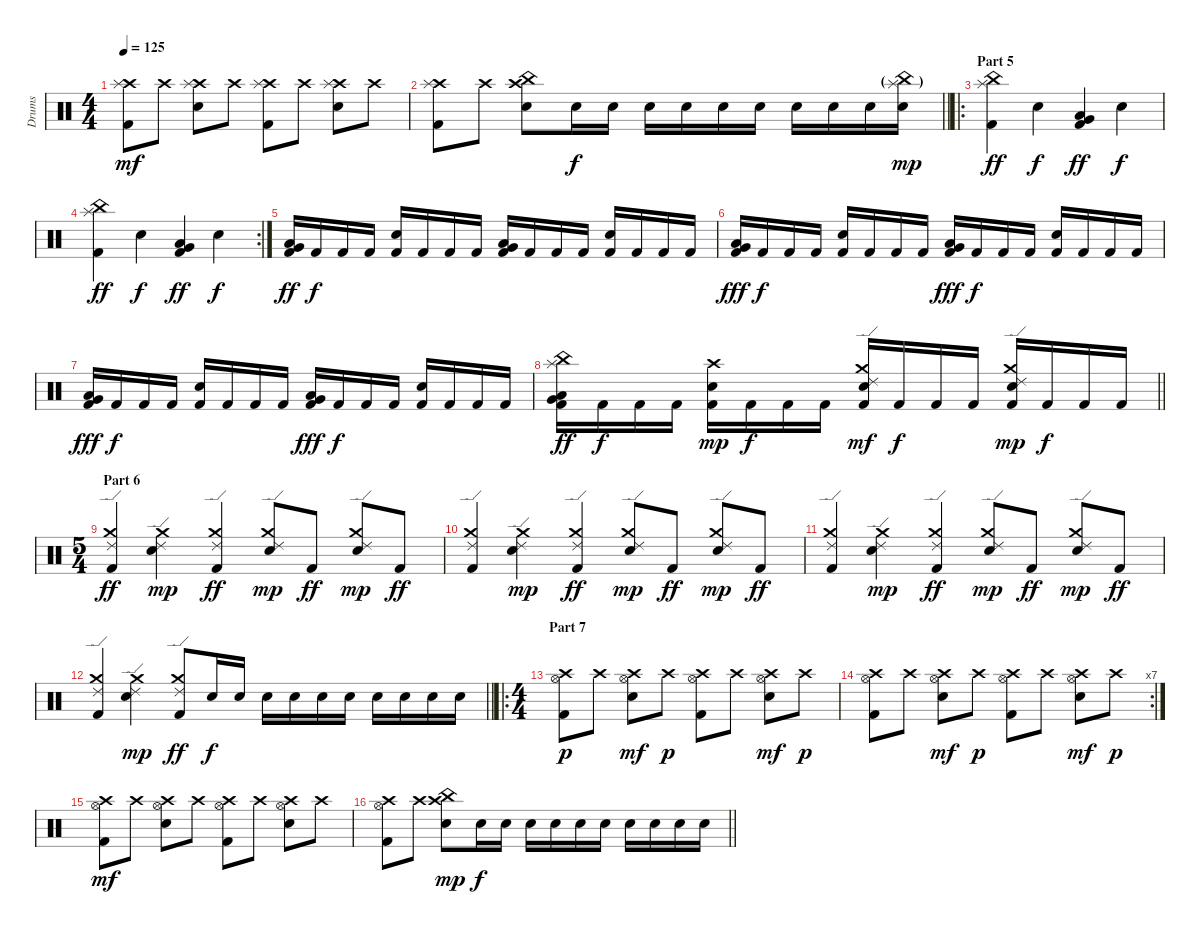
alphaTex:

\track ("Drums" "Drums") {instrument percussion}
\staff {score}
\articulation defaults
\ts (4 4)
\tempo 125
\clef neutral
\ks c
("Crash high (hit)" "Splash (hit)" "Kick (hit) 2").8{dy mf} "Crash high (hit)".8 ("Crash high (hit)" "Splash (hit)" "Electric Snare (hit)").8 "Crash high (hit)".8 ("Crash high (hit)" "Splash (hit)" "Kick (hit) 2").8 "Crash high (hit)".8 ("Crash high (hit)" "Splash (hit)" "Electric Snare (hit)").8 "Crash high (hit)".8 |
\barLineRight lightlight
("Crash high (hit)" "Splash (hit)" "Kick (hit) 2").8 "Crash high (hit)".8 ("Crash high (hit)" "China (hit)" "Electric Snare (hit)").8 "Electric Snare (hit)".16{dy f} "Electric Snare (hit)".16 "Electric Snare (hit)".16 "Electric Snare (hit)".16 "Electric Snare (hit)".16 "Electric Snare (hit)".16 "Electric Snare (hit)".16 "Electric Snare (hit)".16 "Electric Snare (hit)".16 ("Splash (hit)"{g} "China (hit)"{g} "Electric Snare (hit)").16{dy mp} |
\ro
\section ("" "Part 5")
("Splash (hit)" "China (hit)" "Kick (hit) 2").4{dy ff} "Electric Snare (hit)".4{dy f} ("Very Low Tom (hit)" "Low Floor Tom (hit)" "Kick (hit) 2").4{dy ff} "Electric Snare (hit)".4{dy f} |
\rc 2
("Splash (hit)" "China (hit)" "Kick (hit) 2").4{dy ff} "Electric Snare (hit)".4{dy f} ("Very Low Tom (hit)" "Low Floor Tom (hit)" "Kick (hit) 2").4{dy ff} "Electric Snare (hit)".4{dy f} |
("Very Low Tom (hit)" "Low Floor Tom (hit)" "Kick (hit) 2").16{dy ff} "Kick (hit) 2".16{dy f} "Kick (hit) 2".16 "Kick (hit) 2".16 ("Electric Snare (hit)" "Kick (hit) 2").16 "Kick (hit) 2".16 "Kick (hit) 2".16 "Kick (hit) 2".16 ("Very Low Tom (hit)" "Low Floor Tom (hit)" "Kick (hit) 2").16 "Kick (hit) 2".16 "Kick (hit) 2".16 "Kick (hit) 2".16 ("Electric Snare (hit)" "Kick (hit) 2").16 "Kick (hit) 2".16 "Kick (hit) 2".16 "Kick (hit) 2".16 |
("Very Low Tom (hit)" "Low Floor Tom (hit)" "Kick (hit) 2").16{dy fff} "Kick (hit) 2".16{dy f} "Kick (hit) 2".16 "Kick (hit) 2".16 ("Electric Snare (hit)" "Kick (hit) 2").16 "Kick (hit) 2".16 "Kick (hit) 2".16 "Kick (hit) 2".16 ("Very Low Tom (hit)" "Low Floor Tom (hit)" "Kick (hit) 2").16{dy fff} "Kick (hit) 2".16{dy f} "Kick (hit) 2".16 "Kick (hit) 2".16 ("Electric Snare (hit)" "Kick (hit) 2").16 "Kick (hit) 2".16 "Kick (hit) 2".16 "Kick (hit) 2".16 |
("Very Low Tom (hit)" "Low Floor Tom (hit)" "Kick (hit) 2").16{dy fff} "Kick (hit) 2".16{dy f} "Kick (hit) 2".16 "Kick (hit) 2".16 ("Electric Snare (hit)" "Kick (hit) 2").16 "Kick (hit) 2".16 "Kick (hit) 2".16 "Kick (hit) 2".16 ("Very Low Tom (hit)" "Low Floor Tom (hit)" "Kick (hit) 2").16{dy fff} "Kick (hit) 2".16{dy f} "Kick (hit) 2".16 "Kick (hit) 2".16 ("Electric Snare (hit)" "Kick (hit) 2").16 "Kick (hit) 2".16 "Kick (hit) 2".16 "Kick (hit) 2".16 |
\barLineRight lightlight
("Splash (hit)" "China (hit)" "Very Low Tom (hit)" "Low Floor Tom (hit)" "Kick (hit) 2").16{dy ff} "Kick (hit) 2".16{dy f} "Kick (hit) 2".16 "Kick (hit) 2".16 ("Crash high (hit)" "Electric Snare (hit)" "Kick (hit) 2").16{dy mp} "Kick (hit) 2".16{dy f} "Kick (hit) 2".16 "Kick (hit) 2".16 ("Crash medium (hit)" "Ride (edge) 2" "Electric Snare (hit)" "Kick (hit) 2").16{dy mf} "Kick (hit) 2".16{dy f} "Kick (hit) 2".16 "Kick (hit) 2".16 ("Crash medium (hit)" "Ride (edge) 2" "Electric Snare (hit)" "Kick (hit) 2").16{dy mp} "Kick (hit) 2".16{dy f} "Kick (hit) 2".16 "Kick (hit) 2".16 |
\ts (5 4)
\section ("" "Part 6")
("Crash medium (hit)" "Ride (edge) 2" "Kick (hit) 2").4{dy ff} ("Crash medium (hit)" "Ride (edge) 2" "Electric Snare (hit)").4{dy mp} ("Crash medium (hit)" "Ride (edge) 2" "Kick (hit) 2").4{dy ff} ("Crash medium (hit)" "Ride (edge) 2" "Electric Snare (hit)").8{dy mp} "Kick (hit) 2".8{dy ff} ("Crash medium (hit)" "Ride (edge) 2" "Electric Snare (hit)").8{dy mp} "Kick (hit) 2".8{dy ff} |
("Crash medium (hit)" "Ride (edge) 2" "Kick (hit) 2").4 ("Crash medium (hit)" "Ride (edge) 2" "Electric Snare (hit)").4{dy mp} ("Crash medium (hit)" "Ride (edge) 2" "Kick (hit) 2").4{dy ff} ("Crash medium (hit)" "Ride (edge) 2" "Electric Snare (hit)").8{dy mp} "Kick (hit) 2".8{dy ff} ("Crash medium (hit)" "Ride (edge) 2" "Electric Snare (hit)").8{dy mp} "Kick (hit) 2".8{dy ff} |
("Crash medium (hit)" "Ride (edge) 2" "Kick (hit) 2").4 ("Crash medium (hit)" "Ride (edge) 2" "Electric Snare (hit)").4{dy mp} ("Crash medium (hit)" "Ride (edge) 2" "Kick (hit) 2").4{dy ff} ("Crash medium (hit)" "Ride (edge) 2" "Electric Snare (hit)").8{dy mp} "Kick (hit) 2".8{dy ff} ("Crash medium (hit)" "Ride (edge) 2" "Electric Snare (hit)").8{dy mp} "Kick (hit) 2".8{dy ff} |
\barLineRight lightlight
("Crash medium (hit)" "Ride (edge) 2" "Kick (hit) 2").4 ("Crash medium (hit)" "Ride (edge) 2" "Electric Snare (hit)").4{dy mp} ("Crash medium (hit)" "Ride (edge) 2" "Kick (hit) 2").8{dy ff} "Electric Snare (hit)".16{dy f} "Electric Snare (hit)".16 "Electric Snare (hit)".16 "Electric Snare (hit)".16 "Electric Snare (hit)".16 "Electric Snare (hit)".16 "Electric Snare (hit)".16 "Electric Snare (hit)".16 "Electric Snare (hit)".16 "Electric Snare (hit)".16 |
\ro
\ts (4 4)
\section ("" "Part 7")
("Crash high (hit)" "Hi-Hat (open)" "Kick (hit) 2").8{dy p} "Crash high (hit)".8 ("Crash high (hit)" "Hi-Hat (open)" "Electric Snare (hit)").8{dy mf} "Crash high (hit)".8{dy p} ("Crash high (hit)" "Hi-Hat (open)" "Kick (hit) 2").8 "Crash high (hit)".8 ("Crash high (hit)" "Hi-Hat (open)" "Electric Snare (hit)").8{dy mf} "Crash high (hit)".8{dy p} |
\rc 7
("Crash high (hit)" "Hi-Hat (open)" "Kick (hit) 2").8 "Crash high (hit)".8 ("Crash high (hit)" "Hi-Hat (open)" "Electric Snare (hit)").8{dy mf} "Crash high (hit)".8{dy p} ("Crash high (hit)" "Hi-Hat (open)" "Kick (hit) 2").8 "Crash high (hit)".8 ("Crash high (hit)" "Hi-Hat (open)" "Electric Snare (hit)").8{dy mf} "Crash high (hit)".8{dy p} |
("Crash high (hit)" "Hi-Hat (open)" "Kick (hit) 2").8{dy mf} "Crash high (hit)".8 ("Crash high (hit)" "Hi-Hat (open)" "Electric Snare (hit)").8 "Crash high (hit)".8 ("Crash high (hit)" "Hi-Hat (open)" "Kick (hit) 2").8 "Crash high (hit)".8 ("Crash high (hit)" "Hi-Hat (open)" "Electric Snare (hit)").8 "Crash high (hit)".8 |
\barLineRight lightlight
("Crash high (hit)" "Hi-Hat (open)" "Kick (hit) 2").8 "Crash high (hit)".8 ("Crash high (hit)" "China (hit)" "Electric Snare (hit)").8{dy mp} "Electric Snare (hit)".16{dy f} "Electric Snare (hit)".16 "Electric Snare (hit)".16 "Electric Snare (hit)".16 "Electric Snare (hit)".16 "Electric Snare (hit)".16 "Electric Snare (hit)".16 "Electric Snare (hit)".16 "Electric Snare (hit)".16 "Electric Snare (hit)".16
